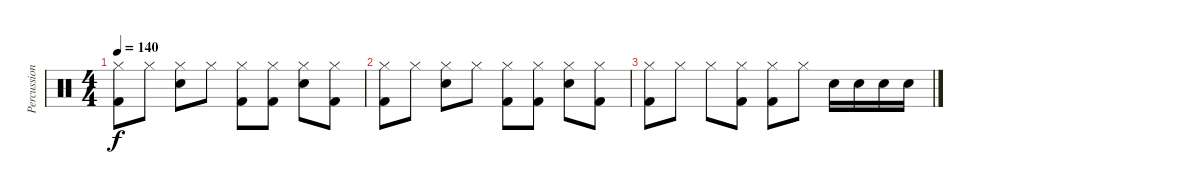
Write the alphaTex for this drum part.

\track ("Percussion" "Percussion") {instrument percussion}
\staff {score}
\articulation defaults
\ts (4 4)
\tempo 140
\clef neutral
\ks c
("Hi-Hat (closed)" "Kick (hit) 2").8{dy f} "Hi-Hat (closed)".8 ("Hi-Hat (closed)" "Snare (hit) 2").8 "Hi-Hat (closed)".8 ("Hi-Hat (closed)" "Kick (hit) 2").8 ("Hi-Hat (closed)" "Kick (hit) 2").8 ("Hi-Hat (closed)" "Snare (hit) 2").8 ("Hi-Hat (closed)" "Kick (hit) 2").8 |
("Hi-Hat (closed)" "Kick (hit) 2").8 "Hi-Hat (closed)".8 ("Hi-Hat (closed)" "Snare (hit) 2").8 "Hi-Hat (closed)".8 ("Hi-Hat (closed)" "Kick (hit) 2").8 ("Hi-Hat (closed)" "Kick (hit) 2").8 ("Hi-Hat (closed)" "Snare (hit) 2").8 ("Hi-Hat (closed)" "Kick (hit) 2").8 |
("Hi-Hat (closed)" "Kick (hit) 2").8 "Hi-Hat (closed)".8 "Hi-Hat (closed)".8 ("Hi-Hat (closed)" "Kick (hit) 2").8 ("Hi-Hat (closed)" "Kick (hit) 2").8 "Hi-Hat (closed)".8 "Snare (hit) 2".16 "Snare (hit) 2".16 "Snare (hit) 2".16 "Snare (hit) 2".16
